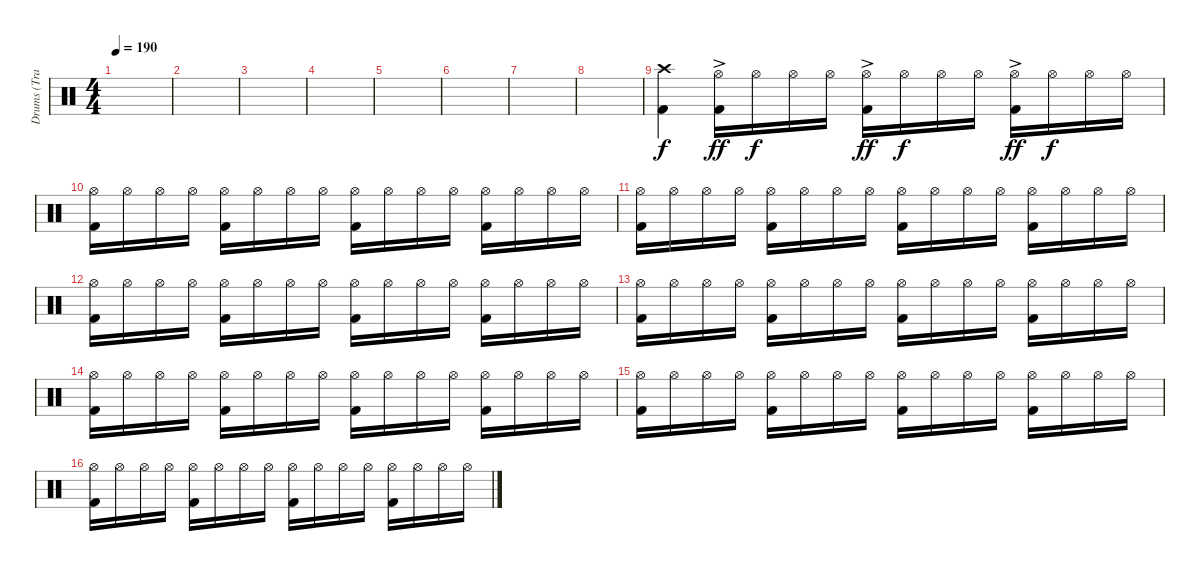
\track ("Drums (Travis)" "Drums (Tra") {instrument percussion}
\staff {score}
\articulation defaults
\ts (4 4)
\tempo 190
\clef neutral
\ks c
|
|
|
|
|
|
|
|
("Crash high (hit)" "Kick (hit) 2").4 ("Hi-Hat (open)"{ac} "Kick (hit) 2").16{dy ff} "Hi-Hat (open)".16{dy f} "Hi-Hat (open)".16 "Hi-Hat (open)".16 ("Hi-Hat (open)"{ac} "Kick (hit) 2").16{dy ff} "Hi-Hat (open)".16{dy f} "Hi-Hat (open)".16 "Hi-Hat (open)".16 ("Hi-Hat (open)"{ac} "Kick (hit) 2").16{dy ff} "Hi-Hat (open)".16{dy f} "Hi-Hat (open)".16 "Hi-Hat (open)".16 |
("Hi-Hat (open)" "Kick (hit) 2").16 "Hi-Hat (open)".16 "Hi-Hat (open)".16 "Hi-Hat (open)".16 ("Hi-Hat (open)" "Kick (hit) 2").16 "Hi-Hat (open)".16 "Hi-Hat (open)".16 "Hi-Hat (open)".16 ("Hi-Hat (open)" "Kick (hit) 2").16 "Hi-Hat (open)".16 "Hi-Hat (open)".16 "Hi-Hat (open)".16 ("Hi-Hat (open)" "Kick (hit) 2").16 "Hi-Hat (open)".16 "Hi-Hat (open)".16 "Hi-Hat (open)".16 |
("Hi-Hat (open)" "Kick (hit) 2").16 "Hi-Hat (open)".16 "Hi-Hat (open)".16 "Hi-Hat (open)".16 ("Hi-Hat (open)" "Kick (hit) 2").16 "Hi-Hat (open)".16 "Hi-Hat (open)".16 "Hi-Hat (open)".16 ("Hi-Hat (open)" "Kick (hit) 2").16 "Hi-Hat (open)".16 "Hi-Hat (open)".16 "Hi-Hat (open)".16 ("Hi-Hat (open)" "Kick (hit) 2").16 "Hi-Hat (open)".16 "Hi-Hat (open)".16 "Hi-Hat (open)".16 |
("Hi-Hat (open)" "Kick (hit) 2").16 "Hi-Hat (open)".16 "Hi-Hat (open)".16 "Hi-Hat (open)".16 ("Hi-Hat (open)" "Kick (hit) 2").16 "Hi-Hat (open)".16 "Hi-Hat (open)".16 "Hi-Hat (open)".16 ("Hi-Hat (open)" "Kick (hit) 2").16 "Hi-Hat (open)".16 "Hi-Hat (open)".16 "Hi-Hat (open)".16 ("Hi-Hat (open)" "Kick (hit) 2").16 "Hi-Hat (open)".16 "Hi-Hat (open)".16 "Hi-Hat (open)".16 |
("Hi-Hat (open)" "Kick (hit) 2").16 "Hi-Hat (open)".16 "Hi-Hat (open)".16 "Hi-Hat (open)".16 ("Hi-Hat (open)" "Kick (hit) 2").16 "Hi-Hat (open)".16 "Hi-Hat (open)".16 "Hi-Hat (open)".16 ("Hi-Hat (open)" "Kick (hit) 2").16 "Hi-Hat (open)".16 "Hi-Hat (open)".16 "Hi-Hat (open)".16 ("Hi-Hat (open)" "Kick (hit) 2").16 "Hi-Hat (open)".16 "Hi-Hat (open)".16 "Hi-Hat (open)".16 |
("Hi-Hat (open)" "Kick (hit) 2").16 "Hi-Hat (open)".16 "Hi-Hat (open)".16 "Hi-Hat (open)".16 ("Hi-Hat (open)" "Kick (hit) 2").16 "Hi-Hat (open)".16 "Hi-Hat (open)".16 "Hi-Hat (open)".16 ("Hi-Hat (open)" "Kick (hit) 2").16 "Hi-Hat (open)".16 "Hi-Hat (open)".16 "Hi-Hat (open)".16 ("Hi-Hat (open)" "Kick (hit) 2").16 "Hi-Hat (open)".16 "Hi-Hat (open)".16 "Hi-Hat (open)".16 |
("Hi-Hat (open)" "Kick (hit) 2").16 "Hi-Hat (open)".16 "Hi-Hat (open)".16 "Hi-Hat (open)".16 ("Hi-Hat (open)" "Kick (hit) 2").16 "Hi-Hat (open)".16 "Hi-Hat (open)".16 "Hi-Hat (open)".16 ("Hi-Hat (open)" "Kick (hit) 2").16 "Hi-Hat (open)".16 "Hi-Hat (open)".16 "Hi-Hat (open)".16 ("Hi-Hat (open)" "Kick (hit) 2").16 "Hi-Hat (open)".16 "Hi-Hat (open)".16 "Hi-Hat (open)".16 |
("Hi-Hat (open)" "Kick (hit) 2").16 "Hi-Hat (open)".16 "Hi-Hat (open)".16 "Hi-Hat (open)".16 ("Hi-Hat (open)" "Kick (hit) 2").16 "Hi-Hat (open)".16 "Hi-Hat (open)".16 "Hi-Hat (open)".16 ("Hi-Hat (open)" "Kick (hit) 2").16 "Hi-Hat (open)".16 "Hi-Hat (open)".16 "Hi-Hat (open)".16 ("Hi-Hat (open)" "Kick (hit) 2").16 "Hi-Hat (open)".16 "Hi-Hat (open)".16 "Hi-Hat (open)".16
